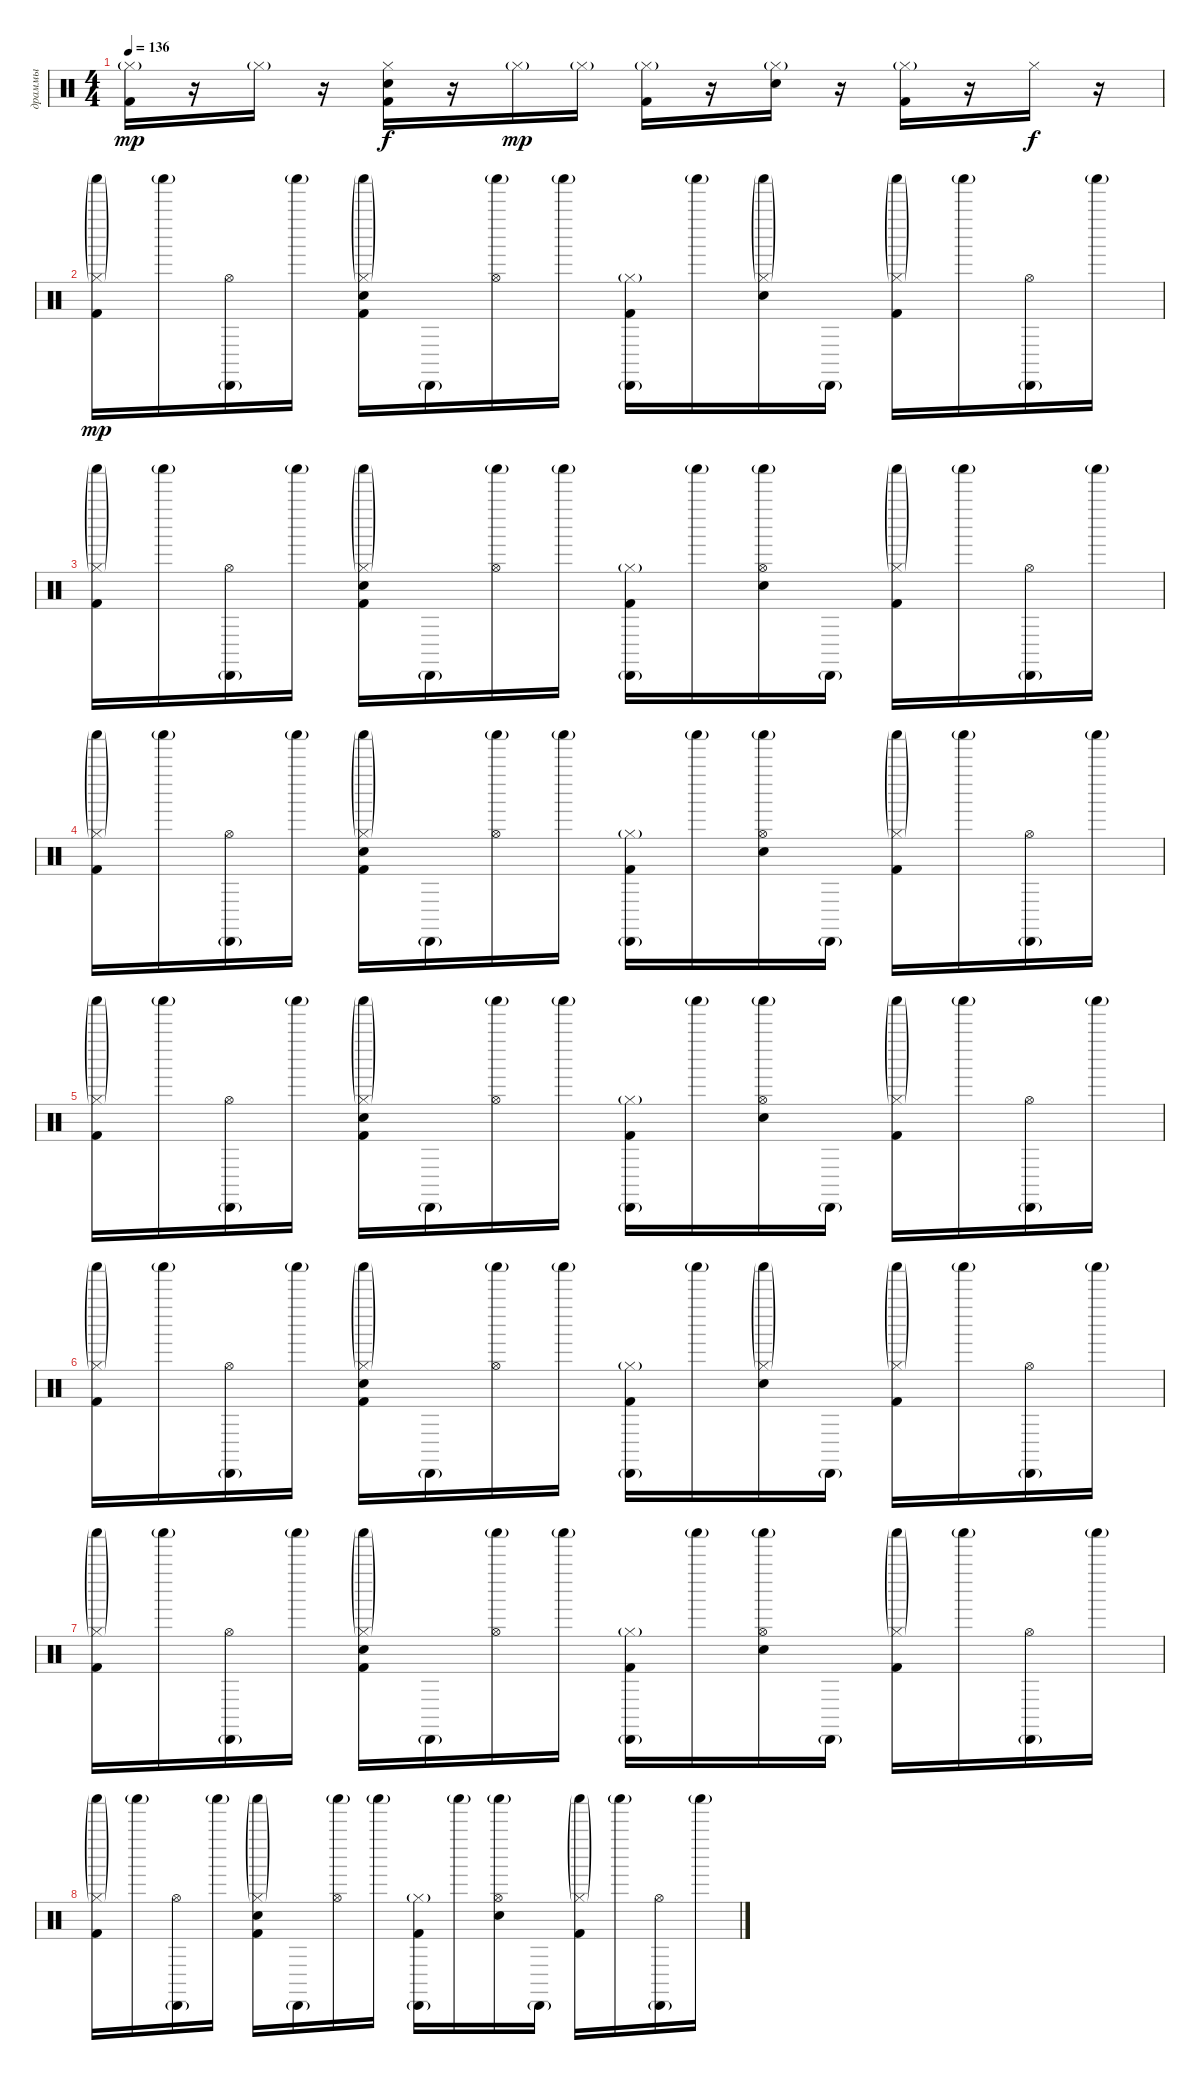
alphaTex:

\track ("драммы" "драммы") {instrument percussion}
\staff {score}
\articulation defaults
\ts (4 4)
\tempo 136
\clef neutral
\ks c
("Kick (hit) 2" "Hi-Hat (closed)"{g}).16{dy mp} r.16 "Hi-Hat (closed)"{g}.16 r.16 ("Snare (hit) 2" "Kick (hit) 2" "Hi-Hat (closed)").16{dy f} r.16 "Hi-Hat (closed)"{g}.16{dy mp} "Hi-Hat (closed)"{g}.16 ("Kick (hit) 2" "Hi-Hat (closed)"{g}).16 r.16 ("Snare (hit) 2" "Hi-Hat (closed)"{g}).16 r.16 ("Kick (hit) 2" "Hi-Hat (closed)"{g}).16 r.16 "Hi-Hat (closed)".16{dy f} r.16 |
("Shaker (hit)"{g} "Kick (hit) 2" "Hi-Hat (closed)"{g}).16{dy mp} "Shaker (hit)"{g}.16 ("Cabasa (hit)"{g} "Hi-Hat (open)").16 "Shaker (hit)"{g}.16 ("Shaker (hit)"{g} "Snare (hit) 2" "Kick (hit) 2" "Hi-Hat (closed)"{g}).16 "Cabasa (hit)"{g}.16 ("Shaker (hit)"{g} "Hi-Hat (open)").16 "Shaker (hit)"{g}.16 ("Cabasa (hit)"{g} "Kick (hit) 2" "Hi-Hat (closed)"{g}).16 "Shaker (hit)"{g}.16 ("Shaker (hit)"{g} "Snare (hit) 2" "Hi-Hat (closed)"{g}).16 "Cabasa (hit)"{g}.16 ("Shaker (hit)"{g} "Kick (hit) 2" "Hi-Hat (closed)"{g}).16 "Shaker (hit)"{g}.16 ("Cabasa (hit)"{g} "Hi-Hat (open)").16 "Shaker (hit)"{g}.16 |
("Shaker (hit)"{g} "Kick (hit) 2" "Hi-Hat (closed)"{g}).16 "Shaker (hit)"{g}.16 ("Cabasa (hit)"{g} "Hi-Hat (open)").16 "Shaker (hit)"{g}.16 ("Shaker (hit)"{g} "Snare (hit) 2" "Kick (hit) 2" "Hi-Hat (closed)"{g}).16 "Cabasa (hit)"{g}.16 ("Shaker (hit)"{g} "Hi-Hat (open)").16 "Shaker (hit)"{g}.16 ("Cabasa (hit)"{g} "Kick (hit) 2" "Hi-Hat (closed)"{g}).16 "Shaker (hit)"{g}.16 ("Shaker (hit)"{g} "Snare (hit) 2" "Hi-Hat (open)").16 "Cabasa (hit)"{g}.16 ("Shaker (hit)"{g} "Kick (hit) 2" "Hi-Hat (closed)"{g}).16 "Shaker (hit)"{g}.16 ("Cabasa (hit)"{g} "Hi-Hat (open)").16 "Shaker (hit)"{g}.16 |
("Shaker (hit)"{g} "Kick (hit) 2" "Hi-Hat (closed)"{g}).16 "Shaker (hit)"{g}.16 ("Cabasa (hit)"{g} "Hi-Hat (open)").16 "Shaker (hit)"{g}.16 ("Shaker (hit)"{g} "Snare (hit) 2" "Kick (hit) 2" "Hi-Hat (closed)"{g}).16 "Cabasa (hit)"{g}.16 ("Shaker (hit)"{g} "Hi-Hat (open)").16 "Shaker (hit)"{g}.16 ("Cabasa (hit)"{g} "Kick (hit) 2" "Hi-Hat (closed)"{g}).16 "Shaker (hit)"{g}.16 ("Shaker (hit)"{g} "Snare (hit) 2" "Hi-Hat (open)").16 "Cabasa (hit)"{g}.16 ("Shaker (hit)"{g} "Kick (hit) 2" "Hi-Hat (closed)"{g}).16 "Shaker (hit)"{g}.16 ("Cabasa (hit)"{g} "Hi-Hat (open)").16 "Shaker (hit)"{g}.16 |
("Shaker (hit)"{g} "Kick (hit) 2" "Hi-Hat (closed)"{g}).16 "Shaker (hit)"{g}.16 ("Cabasa (hit)"{g} "Hi-Hat (open)").16 "Shaker (hit)"{g}.16 ("Shaker (hit)"{g} "Snare (hit) 2" "Kick (hit) 2" "Hi-Hat (closed)"{g}).16 "Cabasa (hit)"{g}.16 ("Shaker (hit)"{g} "Hi-Hat (open)").16 "Shaker (hit)"{g}.16 ("Cabasa (hit)"{g} "Kick (hit) 2" "Hi-Hat (closed)"{g}).16 "Shaker (hit)"{g}.16 ("Shaker (hit)"{g} "Snare (hit) 2" "Hi-Hat (open)").16 "Cabasa (hit)"{g}.16 ("Shaker (hit)"{g} "Kick (hit) 2" "Hi-Hat (closed)"{g}).16 "Shaker (hit)"{g}.16 ("Cabasa (hit)"{g} "Hi-Hat (open)").16 "Shaker (hit)"{g}.16 |
("Shaker (hit)"{g} "Kick (hit) 2" "Hi-Hat (closed)"{g}).16 "Shaker (hit)"{g}.16 ("Cabasa (hit)"{g} "Hi-Hat (open)").16 "Shaker (hit)"{g}.16 ("Shaker (hit)"{g} "Snare (hit) 2" "Kick (hit) 2" "Hi-Hat (closed)"{g}).16 "Cabasa (hit)"{g}.16 ("Shaker (hit)"{g} "Hi-Hat (open)").16 "Shaker (hit)"{g}.16 ("Cabasa (hit)"{g} "Kick (hit) 2" "Hi-Hat (closed)"{g}).16 "Shaker (hit)"{g}.16 ("Shaker (hit)"{g} "Snare (hit) 2" "Hi-Hat (closed)"{g}).16 "Cabasa (hit)"{g}.16 ("Shaker (hit)"{g} "Kick (hit) 2" "Hi-Hat (closed)"{g}).16 "Shaker (hit)"{g}.16 ("Cabasa (hit)"{g} "Hi-Hat (open)").16 "Shaker (hit)"{g}.16 |
("Shaker (hit)"{g} "Kick (hit) 2" "Hi-Hat (closed)"{g}).16 "Shaker (hit)"{g}.16 ("Cabasa (hit)"{g} "Hi-Hat (open)").16 "Shaker (hit)"{g}.16 ("Shaker (hit)"{g} "Snare (hit) 2" "Kick (hit) 2" "Hi-Hat (closed)"{g}).16 "Cabasa (hit)"{g}.16 ("Shaker (hit)"{g} "Hi-Hat (open)").16 "Shaker (hit)"{g}.16 ("Cabasa (hit)"{g} "Kick (hit) 2" "Hi-Hat (closed)"{g}).16 "Shaker (hit)"{g}.16 ("Shaker (hit)"{g} "Snare (hit) 2" "Hi-Hat (open)").16 "Cabasa (hit)"{g}.16 ("Shaker (hit)"{g} "Kick (hit) 2" "Hi-Hat (closed)"{g}).16 "Shaker (hit)"{g}.16 ("Cabasa (hit)"{g} "Hi-Hat (open)").16 "Shaker (hit)"{g}.16 |
("Shaker (hit)"{g} "Kick (hit) 2" "Hi-Hat (closed)"{g}).16 "Shaker (hit)"{g}.16 ("Cabasa (hit)"{g} "Hi-Hat (open)").16 "Shaker (hit)"{g}.16 ("Shaker (hit)"{g} "Snare (hit) 2" "Kick (hit) 2" "Hi-Hat (closed)"{g}).16 "Cabasa (hit)"{g}.16 ("Shaker (hit)"{g} "Hi-Hat (open)").16 "Shaker (hit)"{g}.16 ("Cabasa (hit)"{g} "Kick (hit) 2" "Hi-Hat (closed)"{g}).16 "Shaker (hit)"{g}.16 ("Shaker (hit)"{g} "Snare (hit) 2" "Hi-Hat (open)").16 "Cabasa (hit)"{g}.16 ("Shaker (hit)"{g} "Kick (hit) 2" "Hi-Hat (closed)"{g}).16 "Shaker (hit)"{g}.16 ("Cabasa (hit)"{g} "Hi-Hat (open)").16 "Shaker (hit)"{g}.16
